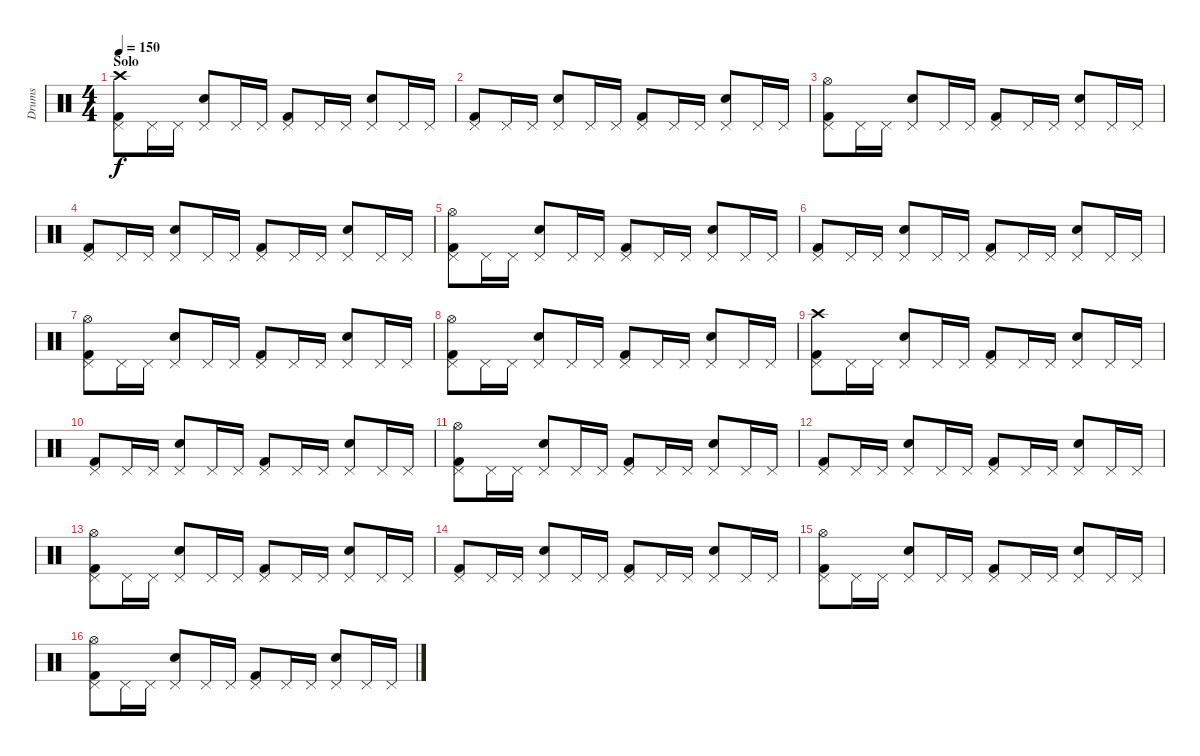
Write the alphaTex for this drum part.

\track ("Drums" "Drums") {instrument percussion}
\staff {score}
\articulation defaults
\ts (4 4)
\section ("" "Solo")
\tempo 150
\clef neutral
\ks c
("Kick (hit) 2" "Pedal Hi-Hat (hit)" "Crash high (hit)").8{dy f} "Pedal Hi-Hat (hit)".16 "Pedal Hi-Hat (hit)".16 ("Snare (hit) 2" "Pedal Hi-Hat (hit)").8 "Pedal Hi-Hat (hit)".16 "Pedal Hi-Hat (hit)".16 ("Kick (hit) 2" "Pedal Hi-Hat (hit)").8 "Pedal Hi-Hat (hit)".16 "Pedal Hi-Hat (hit)".16 ("Snare (hit) 2" "Pedal Hi-Hat (hit)").8 "Pedal Hi-Hat (hit)".16 "Pedal Hi-Hat (hit)".16 |
("Kick (hit) 2" "Pedal Hi-Hat (hit)").8 "Pedal Hi-Hat (hit)".16 "Pedal Hi-Hat (hit)".16 ("Snare (hit) 2" "Pedal Hi-Hat (hit)").8 "Pedal Hi-Hat (hit)".16 "Pedal Hi-Hat (hit)".16 ("Kick (hit) 2" "Pedal Hi-Hat (hit)").8 "Pedal Hi-Hat (hit)".16 "Pedal Hi-Hat (hit)".16 ("Snare (hit) 2" "Pedal Hi-Hat (hit)").8 "Pedal Hi-Hat (hit)".16 "Pedal Hi-Hat (hit)".16 |
("Kick (hit) 2" "Pedal Hi-Hat (hit)" "Hi-Hat (open)").8 "Pedal Hi-Hat (hit)".16 "Pedal Hi-Hat (hit)".16 ("Snare (hit) 2" "Pedal Hi-Hat (hit)").8 "Pedal Hi-Hat (hit)".16 "Pedal Hi-Hat (hit)".16 ("Kick (hit) 2" "Pedal Hi-Hat (hit)").8 "Pedal Hi-Hat (hit)".16 "Pedal Hi-Hat (hit)".16 ("Snare (hit) 2" "Pedal Hi-Hat (hit)").8 "Pedal Hi-Hat (hit)".16 "Pedal Hi-Hat (hit)".16 |
("Kick (hit) 2" "Pedal Hi-Hat (hit)").8 "Pedal Hi-Hat (hit)".16 "Pedal Hi-Hat (hit)".16 ("Snare (hit) 2" "Pedal Hi-Hat (hit)").8 "Pedal Hi-Hat (hit)".16 "Pedal Hi-Hat (hit)".16 ("Kick (hit) 2" "Pedal Hi-Hat (hit)").8 "Pedal Hi-Hat (hit)".16 "Pedal Hi-Hat (hit)".16 ("Snare (hit) 2" "Pedal Hi-Hat (hit)").8 "Pedal Hi-Hat (hit)".16 "Pedal Hi-Hat (hit)".16 |
("Kick (hit) 2" "Pedal Hi-Hat (hit)" "Hi-Hat (open)").8 "Pedal Hi-Hat (hit)".16 "Pedal Hi-Hat (hit)".16 ("Snare (hit) 2" "Pedal Hi-Hat (hit)").8 "Pedal Hi-Hat (hit)".16 "Pedal Hi-Hat (hit)".16 ("Kick (hit) 2" "Pedal Hi-Hat (hit)").8 "Pedal Hi-Hat (hit)".16 "Pedal Hi-Hat (hit)".16 ("Snare (hit) 2" "Pedal Hi-Hat (hit)").8 "Pedal Hi-Hat (hit)".16 "Pedal Hi-Hat (hit)".16 |
("Kick (hit) 2" "Pedal Hi-Hat (hit)").8 "Pedal Hi-Hat (hit)".16 "Pedal Hi-Hat (hit)".16 ("Snare (hit) 2" "Pedal Hi-Hat (hit)").8 "Pedal Hi-Hat (hit)".16 "Pedal Hi-Hat (hit)".16 ("Kick (hit) 2" "Pedal Hi-Hat (hit)").8 "Pedal Hi-Hat (hit)".16 "Pedal Hi-Hat (hit)".16 ("Snare (hit) 2" "Pedal Hi-Hat (hit)").8 "Pedal Hi-Hat (hit)".16 "Pedal Hi-Hat (hit)".16 |
("Kick (hit) 2" "Pedal Hi-Hat (hit)" "Hi-Hat (open)").8 "Pedal Hi-Hat (hit)".16 "Pedal Hi-Hat (hit)".16 ("Snare (hit) 2" "Pedal Hi-Hat (hit)").8 "Pedal Hi-Hat (hit)".16 "Pedal Hi-Hat (hit)".16 ("Kick (hit) 2" "Pedal Hi-Hat (hit)").8 "Pedal Hi-Hat (hit)".16 "Pedal Hi-Hat (hit)".16 ("Snare (hit) 2" "Pedal Hi-Hat (hit)").8 "Pedal Hi-Hat (hit)".16 "Pedal Hi-Hat (hit)".16 |
("Kick (hit) 2" "Pedal Hi-Hat (hit)" "Hi-Hat (open)").8 "Pedal Hi-Hat (hit)".16 "Pedal Hi-Hat (hit)".16 ("Snare (hit) 2" "Pedal Hi-Hat (hit)").8 "Pedal Hi-Hat (hit)".16 "Pedal Hi-Hat (hit)".16 ("Kick (hit) 2" "Pedal Hi-Hat (hit)").8 "Pedal Hi-Hat (hit)".16 "Pedal Hi-Hat (hit)".16 ("Snare (hit) 2" "Pedal Hi-Hat (hit)").8 "Pedal Hi-Hat (hit)".16 "Pedal Hi-Hat (hit)".16 |
("Kick (hit) 2" "Pedal Hi-Hat (hit)" "Crash high (hit)").8 "Pedal Hi-Hat (hit)".16 "Pedal Hi-Hat (hit)".16 ("Snare (hit) 2" "Pedal Hi-Hat (hit)").8 "Pedal Hi-Hat (hit)".16 "Pedal Hi-Hat (hit)".16 ("Kick (hit) 2" "Pedal Hi-Hat (hit)").8 "Pedal Hi-Hat (hit)".16 "Pedal Hi-Hat (hit)".16 ("Snare (hit) 2" "Pedal Hi-Hat (hit)").8 "Pedal Hi-Hat (hit)".16 "Pedal Hi-Hat (hit)".16 |
("Kick (hit) 2" "Pedal Hi-Hat (hit)").8 "Pedal Hi-Hat (hit)".16 "Pedal Hi-Hat (hit)".16 ("Snare (hit) 2" "Pedal Hi-Hat (hit)").8 "Pedal Hi-Hat (hit)".16 "Pedal Hi-Hat (hit)".16 ("Kick (hit) 2" "Pedal Hi-Hat (hit)").8 "Pedal Hi-Hat (hit)".16 "Pedal Hi-Hat (hit)".16 ("Snare (hit) 2" "Pedal Hi-Hat (hit)").8 "Pedal Hi-Hat (hit)".16 "Pedal Hi-Hat (hit)".16 |
("Kick (hit) 2" "Pedal Hi-Hat (hit)" "Hi-Hat (open)").8 "Pedal Hi-Hat (hit)".16 "Pedal Hi-Hat (hit)".16 ("Snare (hit) 2" "Pedal Hi-Hat (hit)").8 "Pedal Hi-Hat (hit)".16 "Pedal Hi-Hat (hit)".16 ("Kick (hit) 2" "Pedal Hi-Hat (hit)").8 "Pedal Hi-Hat (hit)".16 "Pedal Hi-Hat (hit)".16 ("Snare (hit) 2" "Pedal Hi-Hat (hit)").8 "Pedal Hi-Hat (hit)".16 "Pedal Hi-Hat (hit)".16 |
("Kick (hit) 2" "Pedal Hi-Hat (hit)").8 "Pedal Hi-Hat (hit)".16 "Pedal Hi-Hat (hit)".16 ("Snare (hit) 2" "Pedal Hi-Hat (hit)").8 "Pedal Hi-Hat (hit)".16 "Pedal Hi-Hat (hit)".16 ("Kick (hit) 2" "Pedal Hi-Hat (hit)").8 "Pedal Hi-Hat (hit)".16 "Pedal Hi-Hat (hit)".16 ("Snare (hit) 2" "Pedal Hi-Hat (hit)").8 "Pedal Hi-Hat (hit)".16 "Pedal Hi-Hat (hit)".16 |
("Kick (hit) 2" "Pedal Hi-Hat (hit)" "Hi-Hat (open)").8 "Pedal Hi-Hat (hit)".16 "Pedal Hi-Hat (hit)".16 ("Snare (hit) 2" "Pedal Hi-Hat (hit)").8 "Pedal Hi-Hat (hit)".16 "Pedal Hi-Hat (hit)".16 ("Kick (hit) 2" "Pedal Hi-Hat (hit)").8 "Pedal Hi-Hat (hit)".16 "Pedal Hi-Hat (hit)".16 ("Snare (hit) 2" "Pedal Hi-Hat (hit)").8 "Pedal Hi-Hat (hit)".16 "Pedal Hi-Hat (hit)".16 |
("Kick (hit) 2" "Pedal Hi-Hat (hit)").8 "Pedal Hi-Hat (hit)".16 "Pedal Hi-Hat (hit)".16 ("Snare (hit) 2" "Pedal Hi-Hat (hit)").8 "Pedal Hi-Hat (hit)".16 "Pedal Hi-Hat (hit)".16 ("Kick (hit) 2" "Pedal Hi-Hat (hit)").8 "Pedal Hi-Hat (hit)".16 "Pedal Hi-Hat (hit)".16 ("Snare (hit) 2" "Pedal Hi-Hat (hit)").8 "Pedal Hi-Hat (hit)".16 "Pedal Hi-Hat (hit)".16 |
("Kick (hit) 2" "Pedal Hi-Hat (hit)" "Hi-Hat (open)").8 "Pedal Hi-Hat (hit)".16 "Pedal Hi-Hat (hit)".16 ("Snare (hit) 2" "Pedal Hi-Hat (hit)").8 "Pedal Hi-Hat (hit)".16 "Pedal Hi-Hat (hit)".16 ("Kick (hit) 2" "Pedal Hi-Hat (hit)").8 "Pedal Hi-Hat (hit)".16 "Pedal Hi-Hat (hit)".16 ("Snare (hit) 2" "Pedal Hi-Hat (hit)").8 "Pedal Hi-Hat (hit)".16 "Pedal Hi-Hat (hit)".16 |
("Kick (hit) 2" "Pedal Hi-Hat (hit)" "Hi-Hat (open)").8 "Pedal Hi-Hat (hit)".16 "Pedal Hi-Hat (hit)".16 ("Snare (hit) 2" "Pedal Hi-Hat (hit)").8 "Pedal Hi-Hat (hit)".16 "Pedal Hi-Hat (hit)".16 ("Kick (hit) 2" "Pedal Hi-Hat (hit)").8 "Pedal Hi-Hat (hit)".16 "Pedal Hi-Hat (hit)".16 ("Snare (hit) 2" "Pedal Hi-Hat (hit)").8 "Pedal Hi-Hat (hit)".16 "Pedal Hi-Hat (hit)".16
